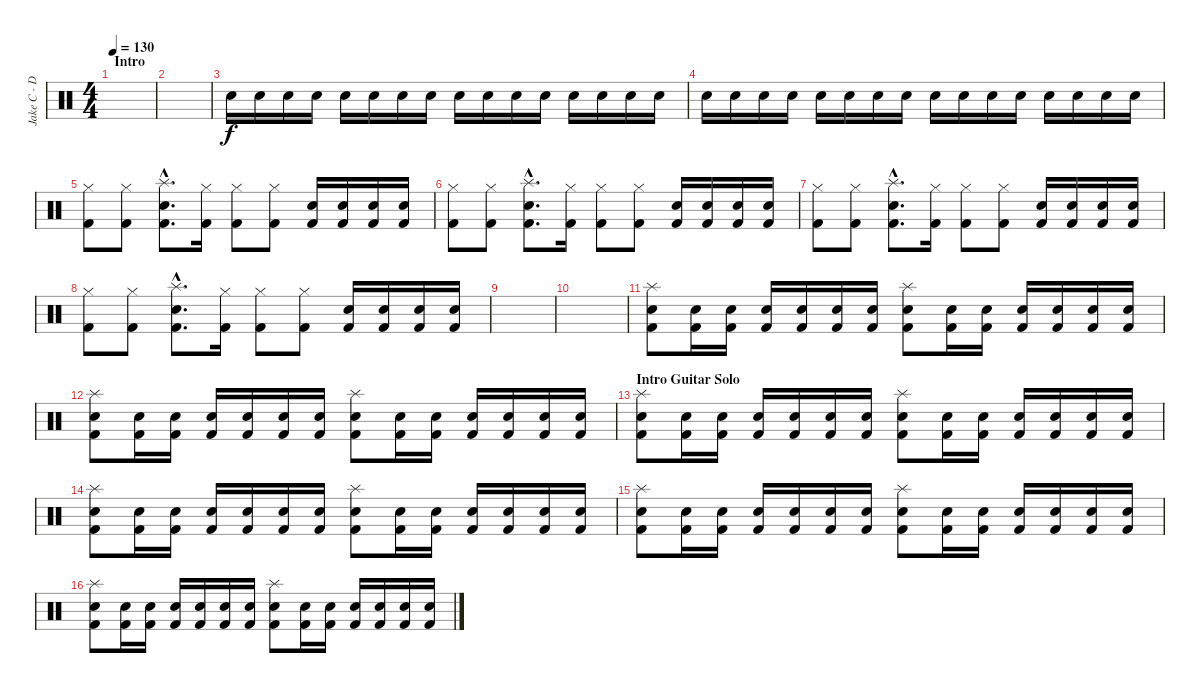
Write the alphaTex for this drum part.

\track ("Jake C - Drums" "Jake C - D") {instrument percussion}
\staff {score}
\articulation defaults
\ts (4 4)
\section ("" "Intro")
\tempo 130
\clef neutral
\ks c
|
|
"Electric Snare (hit)".16 "Electric Snare (hit)".16 "Electric Snare (hit)".16 "Electric Snare (hit)".16 "Electric Snare (hit)".16 "Electric Snare (hit)".16 "Electric Snare (hit)".16 "Electric Snare (hit)".16 "Electric Snare (hit)".16 "Electric Snare (hit)".16 "Electric Snare (hit)".16 "Electric Snare (hit)".16 "Electric Snare (hit)".16 "Electric Snare (hit)".16 "Electric Snare (hit)".16 "Electric Snare (hit)".16 |
"Electric Snare (hit)".16 "Electric Snare (hit)".16 "Electric Snare (hit)".16 "Electric Snare (hit)".16 "Electric Snare (hit)".16 "Electric Snare (hit)".16 "Electric Snare (hit)".16 "Electric Snare (hit)".16 "Electric Snare (hit)".16 "Electric Snare (hit)".16 "Electric Snare (hit)".16 "Electric Snare (hit)".16 "Electric Snare (hit)".16 "Electric Snare (hit)".16 "Electric Snare (hit)".16 "Electric Snare (hit)".16 |
("Hi-Hat (closed)" "Kick (hit) 2").8 ("Hi-Hat (closed)" "Kick (hit) 2").8 ("Splash (hit)"{hac} "Electric Snare (hit)"{hac} "Kick (hit) 2"{hac}).8{d} ("Hi-Hat (closed)" "Kick (hit) 2").16 ("Hi-Hat (closed)" "Kick (hit) 2").8 ("Hi-Hat (closed)" "Kick (hit) 2").8 ("Electric Snare (hit)" "Kick (hit) 2").16 ("Electric Snare (hit)" "Kick (hit) 2").16 ("Electric Snare (hit)" "Kick (hit) 2").16 ("Electric Snare (hit)" "Kick (hit) 2").16 |
("Hi-Hat (closed)" "Kick (hit) 2").8 ("Hi-Hat (closed)" "Kick (hit) 2").8 ("Splash (hit)"{hac} "Electric Snare (hit)"{hac} "Kick (hit) 2"{hac}).8{d} ("Hi-Hat (closed)" "Kick (hit) 2").16 ("Hi-Hat (closed)" "Kick (hit) 2").8 ("Hi-Hat (closed)" "Kick (hit) 2").8 ("Electric Snare (hit)" "Kick (hit) 2").16 ("Electric Snare (hit)" "Kick (hit) 2").16 ("Electric Snare (hit)" "Kick (hit) 2").16 ("Electric Snare (hit)" "Kick (hit) 2").16 |
("Hi-Hat (closed)" "Kick (hit) 2").8 ("Hi-Hat (closed)" "Kick (hit) 2").8 ("Splash (hit)"{hac} "Electric Snare (hit)"{hac} "Kick (hit) 2"{hac}).8{d} ("Hi-Hat (closed)" "Kick (hit) 2").16 ("Hi-Hat (closed)" "Kick (hit) 2").8 ("Hi-Hat (closed)" "Kick (hit) 2").8 ("Electric Snare (hit)" "Kick (hit) 2").16 ("Electric Snare (hit)" "Kick (hit) 2").16 ("Electric Snare (hit)" "Kick (hit) 2").16 ("Electric Snare (hit)" "Kick (hit) 2").16 |
("Hi-Hat (closed)" "Kick (hit) 2").8 ("Hi-Hat (closed)" "Kick (hit) 2").8 ("Splash (hit)"{hac} "Electric Snare (hit)"{hac} "Kick (hit) 2"{hac}).8{d} ("Hi-Hat (closed)" "Kick (hit) 2").16 ("Hi-Hat (closed)" "Kick (hit) 2").8 ("Hi-Hat (closed)" "Kick (hit) 2").8 ("Electric Snare (hit)" "Kick (hit) 2").16 ("Electric Snare (hit)" "Kick (hit) 2").16 ("Electric Snare (hit)" "Kick (hit) 2").16 ("Electric Snare (hit)" "Kick (hit) 2").16 |
|
|
("Splash (hit)" "Electric Snare (hit)" "Kick (hit) 2").8 ("Electric Snare (hit)" "Kick (hit) 2").16 ("Electric Snare (hit)" "Kick (hit) 2").16 ("Electric Snare (hit)" "Kick (hit) 2").16 ("Electric Snare (hit)" "Kick (hit) 2").16 ("Electric Snare (hit)" "Kick (hit) 2").16 ("Electric Snare (hit)" "Kick (hit) 2").16 ("Splash (hit)" "Electric Snare (hit)" "Kick (hit) 2").8 ("Electric Snare (hit)" "Kick (hit) 2").16 ("Electric Snare (hit)" "Kick (hit) 2").16 ("Electric Snare (hit)" "Kick (hit) 2").16 ("Electric Snare (hit)" "Kick (hit) 2").16 ("Electric Snare (hit)" "Kick (hit) 2").16 ("Electric Snare (hit)" "Kick (hit) 2").16 |
("Splash (hit)" "Electric Snare (hit)" "Kick (hit) 2").8 ("Electric Snare (hit)" "Kick (hit) 2").16 ("Electric Snare (hit)" "Kick (hit) 2").16 ("Electric Snare (hit)" "Kick (hit) 2").16 ("Electric Snare (hit)" "Kick (hit) 2").16 ("Electric Snare (hit)" "Kick (hit) 2").16 ("Electric Snare (hit)" "Kick (hit) 2").16 ("Splash (hit)" "Electric Snare (hit)" "Kick (hit) 2").8 ("Electric Snare (hit)" "Kick (hit) 2").16 ("Electric Snare (hit)" "Kick (hit) 2").16 ("Electric Snare (hit)" "Kick (hit) 2").16 ("Electric Snare (hit)" "Kick (hit) 2").16 ("Electric Snare (hit)" "Kick (hit) 2").16 ("Electric Snare (hit)" "Kick (hit) 2").16 |
\section ("" "Intro Guitar Solo")
("Splash (hit)" "Electric Snare (hit)" "Kick (hit) 2").8 ("Electric Snare (hit)" "Kick (hit) 2").16 ("Electric Snare (hit)" "Kick (hit) 2").16 ("Electric Snare (hit)" "Kick (hit) 2").16 ("Electric Snare (hit)" "Kick (hit) 2").16 ("Electric Snare (hit)" "Kick (hit) 2").16 ("Electric Snare (hit)" "Kick (hit) 2").16 ("Splash (hit)" "Electric Snare (hit)" "Kick (hit) 2").8 ("Electric Snare (hit)" "Kick (hit) 2").16 ("Electric Snare (hit)" "Kick (hit) 2").16 ("Electric Snare (hit)" "Kick (hit) 2").16 ("Electric Snare (hit)" "Kick (hit) 2").16 ("Electric Snare (hit)" "Kick (hit) 2").16 ("Electric Snare (hit)" "Kick (hit) 2").16 |
("Splash (hit)" "Electric Snare (hit)" "Kick (hit) 2").8 ("Electric Snare (hit)" "Kick (hit) 2").16 ("Electric Snare (hit)" "Kick (hit) 2").16 ("Electric Snare (hit)" "Kick (hit) 2").16 ("Electric Snare (hit)" "Kick (hit) 2").16 ("Electric Snare (hit)" "Kick (hit) 2").16 ("Electric Snare (hit)" "Kick (hit) 2").16 ("Splash (hit)" "Electric Snare (hit)" "Kick (hit) 2").8 ("Electric Snare (hit)" "Kick (hit) 2").16 ("Electric Snare (hit)" "Kick (hit) 2").16 ("Electric Snare (hit)" "Kick (hit) 2").16 ("Electric Snare (hit)" "Kick (hit) 2").16 ("Electric Snare (hit)" "Kick (hit) 2").16 ("Electric Snare (hit)" "Kick (hit) 2").16 |
("Splash (hit)" "Electric Snare (hit)" "Kick (hit) 2").8 ("Electric Snare (hit)" "Kick (hit) 2").16 ("Electric Snare (hit)" "Kick (hit) 2").16 ("Electric Snare (hit)" "Kick (hit) 2").16 ("Electric Snare (hit)" "Kick (hit) 2").16 ("Electric Snare (hit)" "Kick (hit) 2").16 ("Electric Snare (hit)" "Kick (hit) 2").16 ("Splash (hit)" "Electric Snare (hit)" "Kick (hit) 2").8 ("Electric Snare (hit)" "Kick (hit) 2").16 ("Electric Snare (hit)" "Kick (hit) 2").16 ("Electric Snare (hit)" "Kick (hit) 2").16 ("Electric Snare (hit)" "Kick (hit) 2").16 ("Electric Snare (hit)" "Kick (hit) 2").16 ("Electric Snare (hit)" "Kick (hit) 2").16 |
("Splash (hit)" "Electric Snare (hit)" "Kick (hit) 2").8 ("Electric Snare (hit)" "Kick (hit) 2").16 ("Electric Snare (hit)" "Kick (hit) 2").16 ("Electric Snare (hit)" "Kick (hit) 2").16 ("Electric Snare (hit)" "Kick (hit) 2").16 ("Electric Snare (hit)" "Kick (hit) 2").16 ("Electric Snare (hit)" "Kick (hit) 2").16 ("Splash (hit)" "Electric Snare (hit)" "Kick (hit) 2").8 ("Electric Snare (hit)" "Kick (hit) 2").16 ("Electric Snare (hit)" "Kick (hit) 2").16 ("Electric Snare (hit)" "Kick (hit) 2").16 ("Electric Snare (hit)" "Kick (hit) 2").16 ("Electric Snare (hit)" "Kick (hit) 2").16 ("Electric Snare (hit)" "Kick (hit) 2").16
